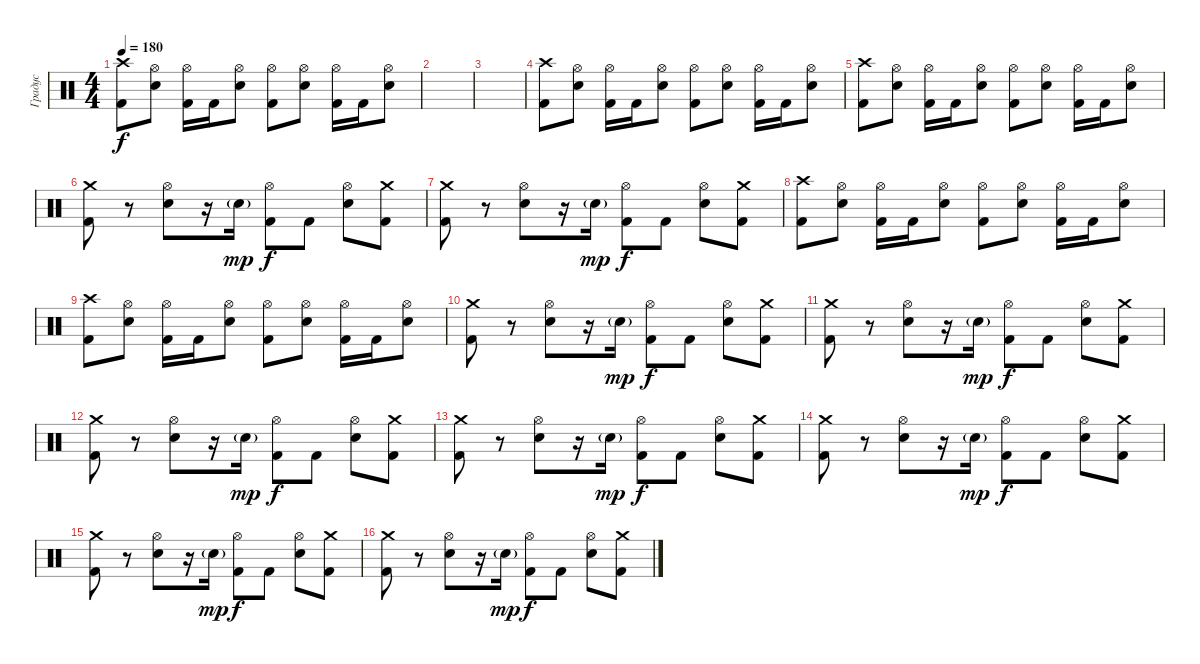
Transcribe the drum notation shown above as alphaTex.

\track ("Градус" "Градус") {instrument percussion}
\staff {score}
\articulation defaults
\ts (4 4)
\tempo 180
\clef neutral
\ks c
("Kick (hit) 2" "Crash high (hit)").8{dy f} ("Electric Snare (hit)" "Hi-Hat (open)").8 ("Kick (hit) 2" "Hi-Hat (open)").16 "Kick (hit) 2".16 ("Electric Snare (hit)" "Hi-Hat (open)").8 ("Kick (hit) 2" "Hi-Hat (open)").8 ("Electric Snare (hit)" "Hi-Hat (open)").8 ("Kick (hit) 2" "Hi-Hat (open)").16 "Kick (hit) 2".16 ("Electric Snare (hit)" "Hi-Hat (open)").8 |
|
|
("Kick (hit) 2" "Crash high (hit)").8 ("Electric Snare (hit)" "Hi-Hat (open)").8 ("Kick (hit) 2" "Hi-Hat (open)").16 "Kick (hit) 2".16 ("Electric Snare (hit)" "Hi-Hat (open)").8 ("Kick (hit) 2" "Hi-Hat (open)").8 ("Electric Snare (hit)" "Hi-Hat (open)").8 ("Kick (hit) 2" "Hi-Hat (open)").16 "Kick (hit) 2".16 ("Electric Snare (hit)" "Hi-Hat (open)").8 |
("Kick (hit) 2" "Crash high (hit)").8 ("Electric Snare (hit)" "Hi-Hat (open)").8 ("Kick (hit) 2" "Hi-Hat (open)").16 "Kick (hit) 2".16 ("Electric Snare (hit)" "Hi-Hat (open)").8 ("Kick (hit) 2" "Hi-Hat (open)").8 ("Electric Snare (hit)" "Hi-Hat (open)").8 ("Kick (hit) 2" "Hi-Hat (open)").16 "Kick (hit) 2".16 ("Electric Snare (hit)" "Hi-Hat (open)").8 |
("Kick (hit) 2" "Crash medium (hit)").8 r.8 ("Electric Snare (hit)" "Hi-Hat (open)").8 r.16 "Electric Snare (hit)"{g}.16{dy mp} ("Kick (hit) 2" "Hi-Hat (open)").8{dy f} "Kick (hit) 2".8 ("Electric Snare (hit)" "Hi-Hat (open)").8 ("Kick (hit) 2" "Crash medium (hit)").8 |
("Kick (hit) 2" "Crash medium (hit)").8 r.8 ("Electric Snare (hit)" "Hi-Hat (open)").8 r.16 "Electric Snare (hit)"{g}.16{dy mp} ("Kick (hit) 2" "Hi-Hat (open)").8{dy f} "Kick (hit) 2".8 ("Electric Snare (hit)" "Hi-Hat (open)").8 ("Kick (hit) 2" "Crash medium (hit)").8 |
("Kick (hit) 2" "Crash high (hit)").8 ("Electric Snare (hit)" "Hi-Hat (open)").8 ("Kick (hit) 2" "Hi-Hat (open)").16 "Kick (hit) 2".16 ("Electric Snare (hit)" "Hi-Hat (open)").8 ("Kick (hit) 2" "Hi-Hat (open)").8 ("Electric Snare (hit)" "Hi-Hat (open)").8 ("Kick (hit) 2" "Hi-Hat (open)").16 "Kick (hit) 2".16 ("Electric Snare (hit)" "Hi-Hat (open)").8 |
("Kick (hit) 2" "Crash high (hit)").8 ("Electric Snare (hit)" "Hi-Hat (open)").8 ("Kick (hit) 2" "Hi-Hat (open)").16 "Kick (hit) 2".16 ("Electric Snare (hit)" "Hi-Hat (open)").8 ("Kick (hit) 2" "Hi-Hat (open)").8 ("Electric Snare (hit)" "Hi-Hat (open)").8 ("Kick (hit) 2" "Hi-Hat (open)").16 "Kick (hit) 2".16 ("Electric Snare (hit)" "Hi-Hat (open)").8 |
("Kick (hit) 2" "Crash medium (hit)").8 r.8 ("Electric Snare (hit)" "Hi-Hat (open)").8 r.16 "Electric Snare (hit)"{g}.16{dy mp} ("Kick (hit) 2" "Hi-Hat (open)").8{dy f} "Kick (hit) 2".8 ("Electric Snare (hit)" "Hi-Hat (open)").8 ("Kick (hit) 2" "Crash medium (hit)").8 |
("Kick (hit) 2" "Crash medium (hit)").8 r.8 ("Electric Snare (hit)" "Hi-Hat (open)").8 r.16 "Electric Snare (hit)"{g}.16{dy mp} ("Kick (hit) 2" "Hi-Hat (open)").8{dy f} "Kick (hit) 2".8 ("Electric Snare (hit)" "Hi-Hat (open)").8 ("Kick (hit) 2" "Crash medium (hit)").8 |
("Kick (hit) 2" "Crash medium (hit)").8 r.8 ("Electric Snare (hit)" "Hi-Hat (open)").8 r.16 "Electric Snare (hit)"{g}.16{dy mp} ("Kick (hit) 2" "Hi-Hat (open)").8{dy f} "Kick (hit) 2".8 ("Electric Snare (hit)" "Hi-Hat (open)").8 ("Kick (hit) 2" "Crash medium (hit)").8 |
("Kick (hit) 2" "Crash medium (hit)").8 r.8 ("Electric Snare (hit)" "Hi-Hat (open)").8 r.16 "Electric Snare (hit)"{g}.16{dy mp} ("Kick (hit) 2" "Hi-Hat (open)").8{dy f} "Kick (hit) 2".8 ("Electric Snare (hit)" "Hi-Hat (open)").8 ("Kick (hit) 2" "Crash medium (hit)").8 |
("Kick (hit) 2" "Crash medium (hit)").8 r.8 ("Electric Snare (hit)" "Hi-Hat (open)").8 r.16 "Electric Snare (hit)"{g}.16{dy mp} ("Kick (hit) 2" "Hi-Hat (open)").8{dy f} "Kick (hit) 2".8 ("Electric Snare (hit)" "Hi-Hat (open)").8 ("Kick (hit) 2" "Crash medium (hit)").8 |
("Kick (hit) 2" "Crash medium (hit)").8 r.8 ("Electric Snare (hit)" "Hi-Hat (open)").8 r.16 "Electric Snare (hit)"{g}.16{dy mp} ("Kick (hit) 2" "Hi-Hat (open)").8{dy f} "Kick (hit) 2".8 ("Electric Snare (hit)" "Hi-Hat (open)").8 ("Kick (hit) 2" "Crash medium (hit)").8 |
("Kick (hit) 2" "Crash medium (hit)").8 r.8 ("Electric Snare (hit)" "Hi-Hat (open)").8 r.16 "Electric Snare (hit)"{g}.16{dy mp} ("Kick (hit) 2" "Hi-Hat (open)").8{dy f} "Kick (hit) 2".8 ("Electric Snare (hit)" "Hi-Hat (open)").8 ("Kick (hit) 2" "Crash medium (hit)").8
